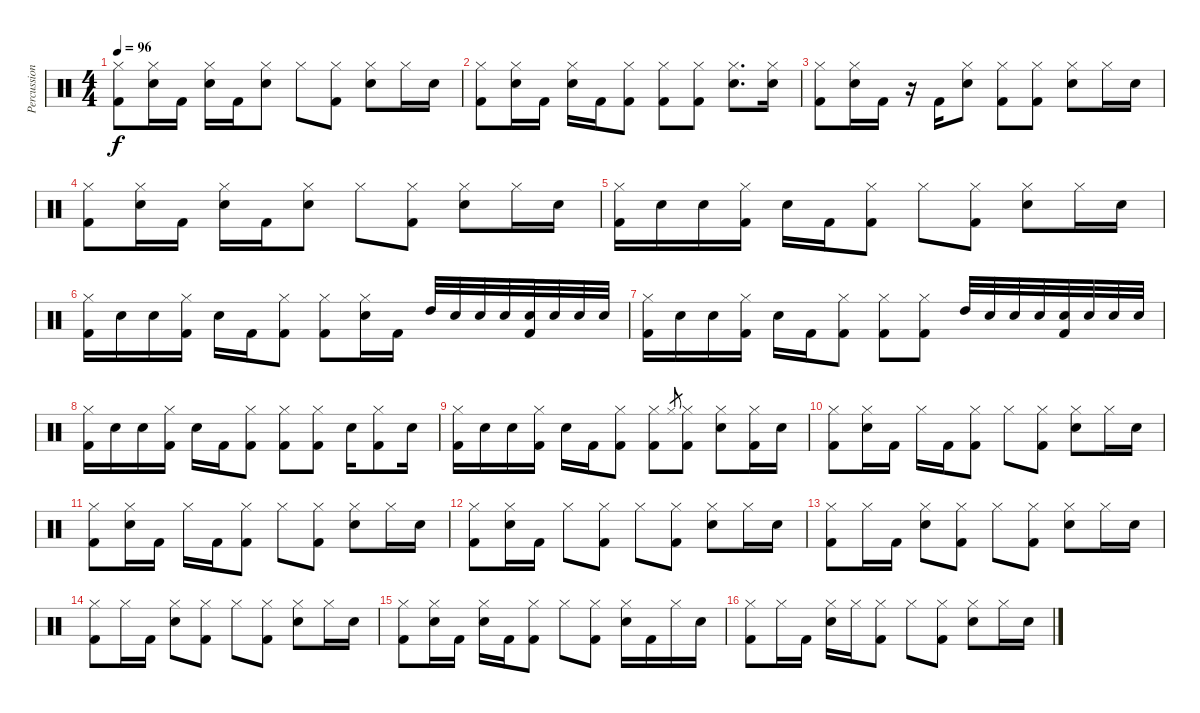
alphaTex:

\track ("Percussions" "Percussion") {instrument percussion}
\staff {score}
\articulation defaults
\ts (4 4)
\tempo 96
\clef neutral
\ks c
("Hi-Hat (closed)" "Kick (hit) 2").8{dy f} ("Snare (hit) 2" "Hi-Hat (closed)").16 "Kick (hit) 2".16 ("Hi-Hat (closed)" "Snare (hit) 2").16 "Kick (hit) 2".16 ("Hi-Hat (closed)" "Snare (hit) 2").8 "Hi-Hat (closed)".8 ("Hi-Hat (closed)" "Kick (hit) 2").8 ("Hi-Hat (closed)" "Snare (hit) 2").8 "Hi-Hat (closed)".16 "Snare (hit) 2".16 |
("Hi-Hat (closed)" "Kick (hit) 2").8 ("Snare (hit) 2" "Hi-Hat (closed)").16 "Kick (hit) 2".16 ("Hi-Hat (closed)" "Snare (hit) 2").16 "Kick (hit) 2".16 ("Hi-Hat (closed)" "Kick (hit) 2").8 ("Hi-Hat (closed)" "Kick (hit) 2").8 ("Hi-Hat (closed)" "Kick (hit) 2").8 ("Hi-Hat (closed)" "Snare (hit) 2").8{d} ("Hi-Hat (closed)" "Snare (hit) 2").16 |
("Hi-Hat (closed)" "Kick (hit) 2").8 ("Snare (hit) 2" "Hi-Hat (closed)").16 "Kick (hit) 2".16 r.16 "Kick (hit) 2".16 ("Hi-Hat (closed)" "Snare (hit) 2").8 ("Hi-Hat (closed)" "Kick (hit) 2").8 ("Hi-Hat (closed)" "Kick (hit) 2").8 ("Hi-Hat (closed)" "Snare (hit) 2").8 "Hi-Hat (closed)".16 "Snare (hit) 2".16 |
("Hi-Hat (closed)" "Kick (hit) 2").8 ("Snare (hit) 2" "Hi-Hat (closed)").16 "Kick (hit) 2".16 ("Hi-Hat (closed)" "Snare (hit) 2").16 "Kick (hit) 2".16 ("Hi-Hat (closed)" "Snare (hit) 2").8 "Hi-Hat (closed)".8 ("Hi-Hat (closed)" "Kick (hit) 2").8 ("Hi-Hat (closed)" "Snare (hit) 2").8 "Hi-Hat (closed)".16 "Snare (hit) 2".16 |
("Hi-Hat (closed)" "Kick (hit) 2").16 "Snare (hit) 2".16 "Snare (hit) 2".16 ("Hi-Hat (closed)" "Kick (hit) 2").16 "Snare (hit) 2".16 "Kick (hit) 2".16 ("Hi-Hat (closed)" "Kick (hit) 2").8 "Hi-Hat (closed)".8 ("Kick (hit) 2" "Hi-Hat (closed)").8 ("Hi-Hat (closed)" "Snare (hit) 2").8 "Hi-Hat (closed)".16 "Snare (hit) 2".16 |
("Hi-Hat (closed)" "Kick (hit) 2").16 "Snare (hit) 2".16 "Snare (hit) 2".16 ("Hi-Hat (closed)" "Kick (hit) 2").16 "Snare (hit) 2".16 "Kick (hit) 2".16 ("Hi-Hat (closed)" "Kick (hit) 2").8 ("Hi-Hat (closed)" "Kick (hit) 2").8 ("Snare (hit) 2" "Hi-Hat (closed)").16 "Kick (hit) 2".16 "High Tom (hit)".32 "Snare (hit) 2".32 "Snare (hit) 2".32 "Snare (hit) 2".32 ("Kick (hit) 2" "Snare (hit) 2").32 "Snare (hit) 2".32 "Snare (hit) 2".32 "Snare (hit) 2".32 |
("Hi-Hat (closed)" "Kick (hit) 2").16 "Snare (hit) 2".16 "Snare (hit) 2".16 ("Hi-Hat (closed)" "Kick (hit) 2").16 "Snare (hit) 2".16 "Kick (hit) 2".16 ("Hi-Hat (closed)" "Kick (hit) 2").8 ("Hi-Hat (closed)" "Kick (hit) 2").8 ("Kick (hit) 2" "Hi-Hat (closed)").8 "High Tom (hit)".32 "Snare (hit) 2".32 "Snare (hit) 2".32 "Snare (hit) 2".32 ("Kick (hit) 2" "Snare (hit) 2").32 "Snare (hit) 2".32 "Snare (hit) 2".32 "Snare (hit) 2".32 |
("Hi-Hat (closed)" "Kick (hit) 2").16 "Snare (hit) 2".16 "Snare (hit) 2".16 ("Hi-Hat (closed)" "Kick (hit) 2").16 "Snare (hit) 2".16 "Kick (hit) 2".16 ("Hi-Hat (closed)" "Kick (hit) 2").8 ("Hi-Hat (closed)" "Kick (hit) 2").8 ("Kick (hit) 2" "Hi-Hat (closed)").8 "Snare (hit) 2".16 ("Hi-Hat (closed)" "Kick (hit) 2").8 "Snare (hit) 2".16 |
("Hi-Hat (closed)" "Kick (hit) 2").16 "Snare (hit) 2".16 "Snare (hit) 2".16 ("Hi-Hat (closed)" "Kick (hit) 2").16 "Snare (hit) 2".16 "Kick (hit) 2".16 ("Hi-Hat (closed)" "Kick (hit) 2").8 ("Hi-Hat (closed)" "Kick (hit) 2").8 "Hi-Hat (closed)".8{gr} ("Kick (hit) 2" "Hi-Hat (closed)").8 ("Hi-Hat (closed)" "Snare (hit) 2").8 ("Hi-Hat (closed)" "Kick (hit) 2").16 "Snare (hit) 2".16 |
("Hi-Hat (closed)" "Kick (hit) 2").8 ("Hi-Hat (closed)" "Snare (hit) 2").16 "Kick (hit) 2".16 "Hi-Hat (closed)".16 "Kick (hit) 2".16 ("Hi-Hat (closed)" "Kick (hit) 2").8 "Hi-Hat (closed)".8 ("Hi-Hat (closed)" "Kick (hit) 2").8 ("Snare (hit) 2" "Hi-Hat (closed)").8 "Hi-Hat (closed)".16 "Snare (hit) 2".16 |
("Hi-Hat (closed)" "Kick (hit) 2").8 ("Hi-Hat (closed)" "Snare (hit) 2").16 "Kick (hit) 2".16 "Hi-Hat (closed)".16 "Kick (hit) 2".16 ("Hi-Hat (closed)" "Kick (hit) 2").8 "Hi-Hat (closed)".8 ("Hi-Hat (closed)" "Kick (hit) 2").8 ("Snare (hit) 2" "Hi-Hat (closed)").8 "Hi-Hat (closed)".16 "Snare (hit) 2".16 |
("Hi-Hat (closed)" "Kick (hit) 2").8 ("Hi-Hat (closed)" "Snare (hit) 2").16 "Kick (hit) 2".16 "Hi-Hat (closed)".8 ("Hi-Hat (closed)" "Kick (hit) 2").8 "Hi-Hat (closed)".8 ("Hi-Hat (closed)" "Kick (hit) 2").8 ("Snare (hit) 2" "Hi-Hat (closed)").8 "Hi-Hat (closed)".16 "Snare (hit) 2".16 |
("Hi-Hat (closed)" "Kick (hit) 2").8 "Hi-Hat (closed)".16 "Kick (hit) 2".16 ("Hi-Hat (closed)" "Snare (hit) 2").8 ("Hi-Hat (closed)" "Kick (hit) 2").8 "Hi-Hat (closed)".8 ("Hi-Hat (closed)" "Kick (hit) 2").8 ("Snare (hit) 2" "Hi-Hat (closed)").8 "Hi-Hat (closed)".16 "Snare (hit) 2".16 |
("Hi-Hat (closed)" "Kick (hit) 2").8 "Hi-Hat (closed)".16 "Kick (hit) 2".16 ("Hi-Hat (closed)" "Snare (hit) 2").8 ("Hi-Hat (closed)" "Kick (hit) 2").8 "Hi-Hat (closed)".8 ("Hi-Hat (closed)" "Kick (hit) 2").8 ("Snare (hit) 2" "Hi-Hat (closed)").8 "Hi-Hat (closed)".16 "Snare (hit) 2".16 |
("Hi-Hat (closed)" "Kick (hit) 2").8 ("Hi-Hat (closed)" "Snare (hit) 2").16 "Kick (hit) 2".16 ("Hi-Hat (closed)" "Snare (hit) 2").16 "Kick (hit) 2".16 ("Hi-Hat (closed)" "Kick (hit) 2").8 "Hi-Hat (closed)".8 ("Hi-Hat (closed)" "Kick (hit) 2").8 ("Snare (hit) 2" "Hi-Hat (closed)").16 "Kick (hit) 2".16 "Hi-Hat (closed)".16 "Snare (hit) 2".16 |
("Hi-Hat (closed)" "Kick (hit) 2").8 "Hi-Hat (closed)".16 "Kick (hit) 2".16 ("Hi-Hat (closed)" "Snare (hit) 2").16 "Hi-Hat (closed)".16 ("Hi-Hat (closed)" "Kick (hit) 2").8 "Hi-Hat (closed)".8 ("Kick (hit) 2" "Hi-Hat (closed)").8 ("Hi-Hat (closed)" "Snare (hit) 2").8 "Hi-Hat (closed)".16 "Snare (hit) 2".16
